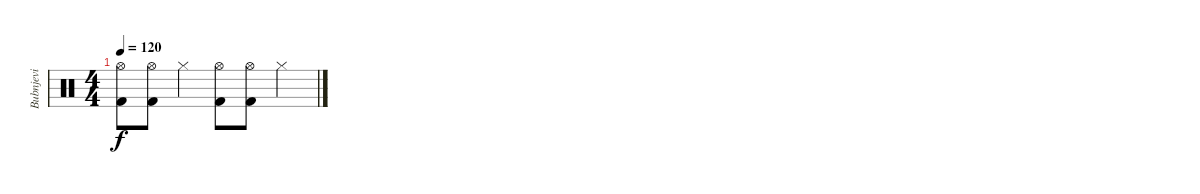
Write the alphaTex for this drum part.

\track ("Bubnjevi" "Bubnjevi") {instrument percussion}
\staff {score}
\articulation defaults
\ts (4 4)
\tempo 120
\clef neutral
\ks c
("Hi-Hat (open)" "Kick (hit) 2").8{dy f} ("Hi-Hat (open)" "Kick (hit) 2").8 "Hi-Hat (closed)".4 ("Kick (hit) 2" "Hi-Hat (open)").8 ("Hi-Hat (open)" "Kick (hit) 2").8 "Hi-Hat (closed)".4
